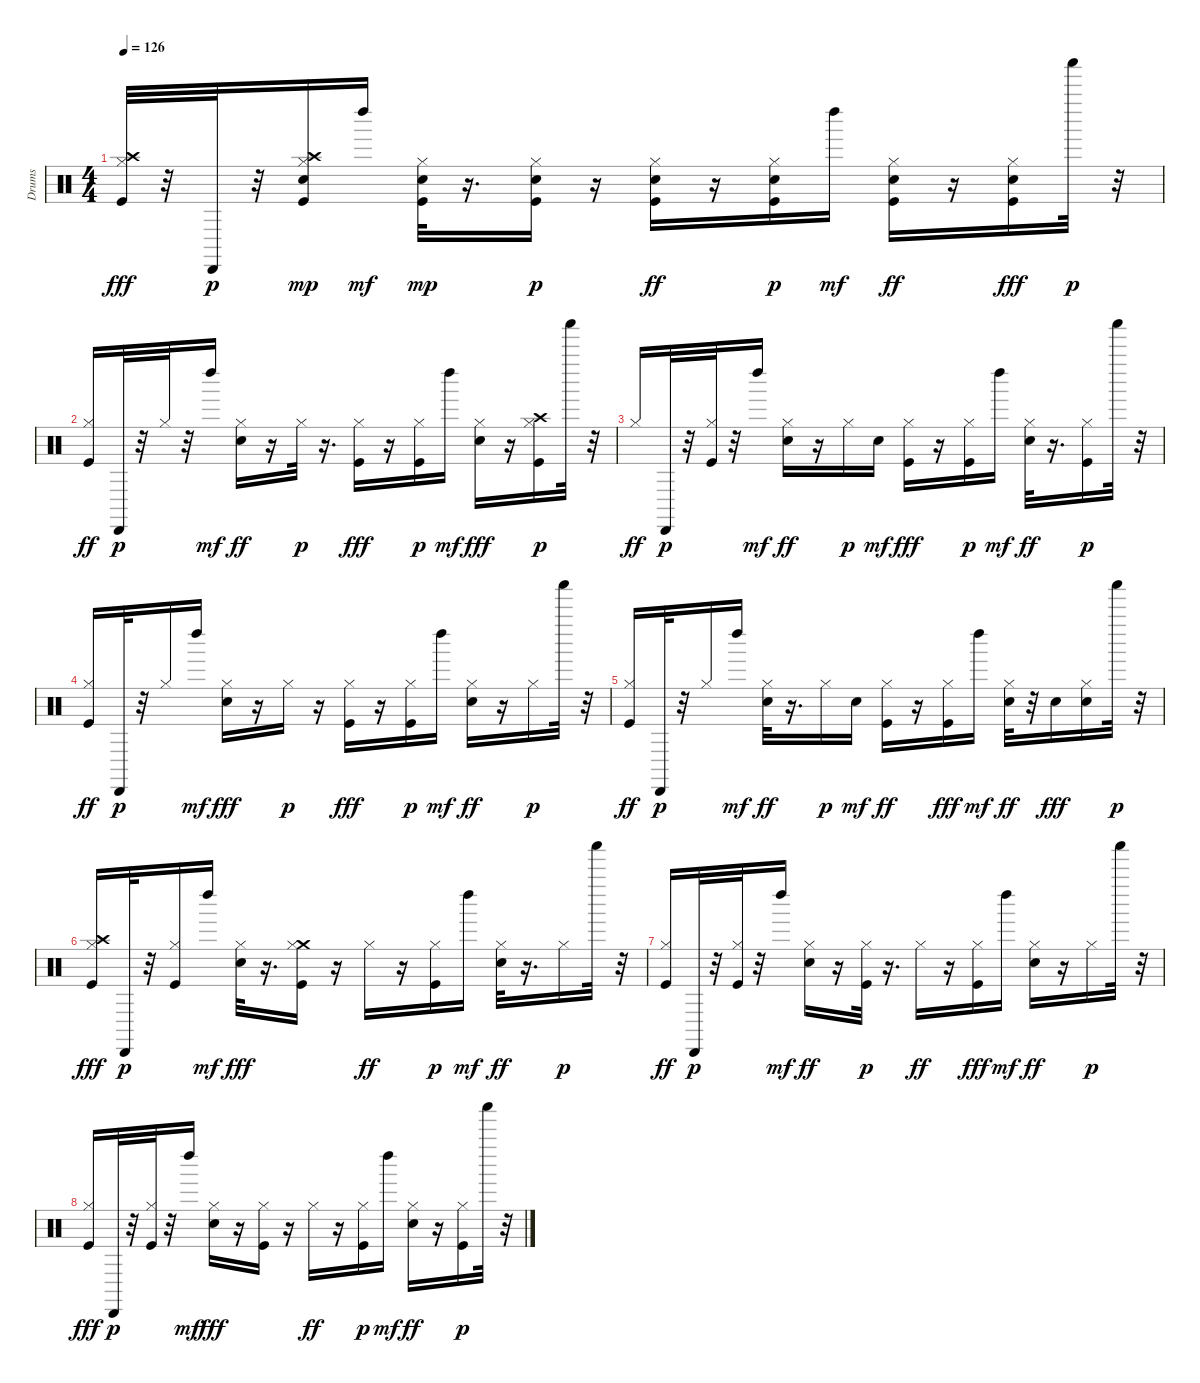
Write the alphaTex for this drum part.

\track ("Drums" "Drums") {instrument percussion}
\staff {score}
\articulation defaults
\ts (4 4)
\tempo 126
\clef neutral
\ks c
("Crash high (hit)" "Hi-Hat (closed)" "Kick (hit)").32{dy fff} r.32 "Cabasa (hit)".32{dy p} r.32 ("Crash high (hit)" "Kick (hit)" "Hi-Hat (closed)" "Electric Snare (hit)").16{dy mp} "Left Maraca (hit)".16{dy mf} ("Kick (hit)" "Hi-Hat (closed)" "Electric Snare (hit)").32{dy mp} r.16{d} ("Electric Snare (hit)" "Kick (hit)" "Hi-Hat (closed)").16{dy p} r.16 ("Kick (hit)" "Electric Snare (hit)" "Hi-Hat (closed)").16{dy ff} r.16 ("Hi-Hat (closed)" "Electric Snare (hit)" "Kick (hit)").16{dy p} "Left Maraca (hit)".16{dy mf} ("Electric Snare (hit)" "Kick (hit)" "Hi-Hat (closed)").16{dy ff} r.16 ("Electric Snare (hit)" "Hi-Hat (closed)" "Kick (hit)").16{dy fff} "Shaker (hit)".32{dy p} r.32 |
("Kick (hit)" "Hi-Hat (closed)").16{dy ff} "Cabasa (hit)".32{dy p} r.32 "Hi-Hat (closed)".32 r.32 "Left Maraca (hit)".16{dy mf} ("Electric Snare (hit)" "Hi-Hat (closed)").16{dy ff} r.16 "Hi-Hat (closed)".32{dy p} r.16{d} ("Hi-Hat (closed)" "Kick (hit)").16{dy fff} r.16 ("Kick (hit)" "Hi-Hat (closed)").16{dy p} "Left Maraca (hit)".16{dy mf} ("Hi-Hat (closed)" "Electric Snare (hit)").16{dy fff} r.16 ("Kick (hit)" "Crash high (hit)" "Hi-Hat (closed)").16{dy p} "Shaker (hit)".32 r.32 |
"Hi-Hat (closed)".16{dy ff} "Cabasa (hit)".32{dy p} r.32 ("Kick (hit)" "Hi-Hat (closed)").32 r.32 "Left Maraca (hit)".16{dy mf} ("Electric Snare (hit)" "Hi-Hat (closed)").16{dy ff} r.16 "Hi-Hat (closed)".16{dy p} "Electric Snare (hit)".16{dy mf} ("Hi-Hat (closed)" "Kick (hit)").16{dy fff} r.16 ("Kick (hit)" "Hi-Hat (closed)").16{dy p} "Left Maraca (hit)".16{dy mf} ("Electric Snare (hit)" "Hi-Hat (closed)").32{dy ff} r.16{d} ("Kick (hit)" "Hi-Hat (closed)").16{dy p} "Shaker (hit)".32 r.32 |
("Kick (hit)" "Hi-Hat (closed)").16{dy ff} "Cabasa (hit)".32{dy p} r.32 "Hi-Hat (closed)".16 "Left Maraca (hit)".16{dy mf} ("Hi-Hat (closed)" "Electric Snare (hit)").16{dy fff} r.16 "Hi-Hat (closed)".16{dy p} r.16 ("Hi-Hat (closed)" "Kick (hit)").16{dy fff} r.16 ("Kick (hit)" "Hi-Hat (closed)").16{dy p} "Left Maraca (hit)".16{dy mf} ("Electric Snare (hit)" "Hi-Hat (closed)").16{dy ff} r.16 "Hi-Hat (closed)".16{dy p} "Shaker (hit)".32 r.32 |
("Kick (hit)" "Hi-Hat (closed)").16{dy ff} "Cabasa (hit)".32{dy p} r.32 "Hi-Hat (closed)".16 "Left Maraca (hit)".16{dy mf} ("Electric Snare (hit)" "Hi-Hat (closed)").32{dy ff} r.16{d} "Hi-Hat (closed)".16{dy p} "Electric Snare (hit)".16{dy mf} ("Kick (hit)" "Hi-Hat (closed)").16{dy ff} r.16 ("Hi-Hat (closed)" "Kick (hit)").16{dy fff} "Left Maraca (hit)".16{dy mf} ("Electric Snare (hit)" "Hi-Hat (closed)").32{dy ff} r.32 "Electric Snare (hit)".16{dy fff} ("Hi-Hat (closed)" "Electric Snare (hit)").16 "Shaker (hit)".32{dy p} r.32 |
("Crash high (hit)" "Hi-Hat (closed)" "Kick (hit)").16{dy fff} "Cabasa (hit)".32{dy p} r.32 ("Kick (hit)" "Hi-Hat (closed)").16 "Left Maraca (hit)".16{dy mf} ("Hi-Hat (closed)" "Electric Snare (hit)").32{dy fff} r.16{d} ("Crash medium (hit)" "Hi-Hat (closed)" "Kick (hit)").16 r.16 "Hi-Hat (closed)".16{dy ff} r.16 ("Kick (hit)" "Hi-Hat (closed)").16{dy p} "Left Maraca (hit)".16{dy mf} ("Electric Snare (hit)" "Hi-Hat (closed)").32{dy ff} r.16{d} "Hi-Hat (closed)".16{dy p} "Shaker (hit)".32 r.32 |
("Kick (hit)" "Hi-Hat (closed)").16{dy ff} "Cabasa (hit)".32{dy p} r.32 ("Kick (hit)" "Hi-Hat (closed)").32 r.32 "Left Maraca (hit)".16{dy mf} ("Electric Snare (hit)" "Hi-Hat (closed)").16{dy ff} r.16 ("Kick (hit)" "Hi-Hat (closed)").32{dy p} r.16{d} "Hi-Hat (closed)".16{dy ff} r.16 ("Hi-Hat (closed)" "Kick (hit)").16{dy fff} "Left Maraca (hit)".16{dy mf} ("Electric Snare (hit)" "Hi-Hat (closed)").16{dy ff} r.16 "Hi-Hat (closed)".16{dy p} "Shaker (hit)".32 r.32 |
("Hi-Hat (closed)" "Kick (hit)").16{dy fff} "Cabasa (hit)".32{dy p} r.32 ("Kick (hit)" "Hi-Hat (closed)").32 r.32 "Left Maraca (hit)".16{dy mf} ("Hi-Hat (closed)" "Electric Snare (hit)").16{dy fff} r.16 ("Hi-Hat (closed)" "Kick (hit)").16 r.16 "Hi-Hat (closed)".16{dy ff} r.16 ("Kick (hit)" "Hi-Hat (closed)").16{dy p} "Left Maraca (hit)".16{dy mf} ("Electric Snare (hit)" "Hi-Hat (closed)").16{dy ff} r.16 ("Kick (hit)" "Hi-Hat (closed)").16{dy p} "Shaker (hit)".32 r.32
